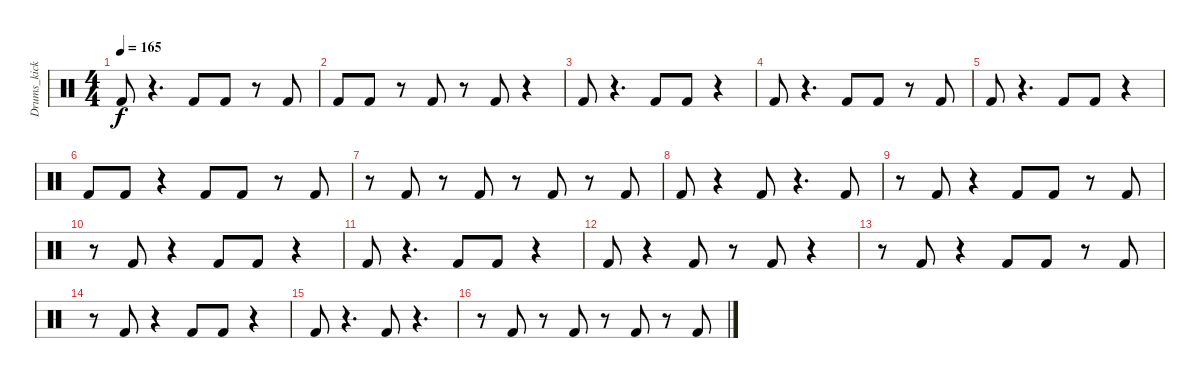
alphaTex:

\track ("Drums_kick" "Drums_kick") {instrument percussion}
\staff {score}
\articulation defaults
\ts (4 4)
\tempo 165
\clef neutral
\ks c "Kick (hit) 2".8{dy f}
r.4{d} "Kick (hit) 2".8 "Kick (hit) 2".8 r.8 "Kick (hit) 2".8 |
"Kick (hit) 2".8 "Kick (hit) 2".8 r.8 "Kick (hit) 2".8 r.8 "Kick (hit) 2".8 r.4 |
"Kick (hit) 2".8 r.4{d} "Kick (hit) 2".8 "Kick (hit) 2".8 r.4 |
"Kick (hit) 2".8 r.4{d} "Kick (hit) 2".8 "Kick (hit) 2".8 r.8 "Kick (hit) 2".8 |
"Kick (hit) 2".8 r.4{d} "Kick (hit) 2".8 "Kick (hit) 2".8 r.4 |
"Kick (hit) 2".8 "Kick (hit) 2".8 r.4 "Kick (hit) 2".8 "Kick (hit) 2".8 r.8 "Kick (hit) 2".8 |
r.8 "Kick (hit) 2".8 r.8 "Kick (hit) 2".8 r.8 "Kick (hit) 2".8 r.8 "Kick (hit) 2".8 |
"Kick (hit) 2".8 r.4 "Kick (hit) 2".8 r.4{d} "Kick (hit) 2".8 |
r.8 "Kick (hit) 2".8 r.4 "Kick (hit) 2".8 "Kick (hit) 2".8 r.8 "Kick (hit) 2".8 |
r.8 "Kick (hit) 2".8 r.4 "Kick (hit) 2".8 "Kick (hit) 2".8 r.4 |
"Kick (hit) 2".8 r.4{d} "Kick (hit) 2".8 "Kick (hit) 2".8 r.4 |
"Kick (hit) 2".8 r.4 "Kick (hit) 2".8 r.8 "Kick (hit) 2".8 r.4 |
r.8 "Kick (hit) 2".8 r.4 "Kick (hit) 2".8 "Kick (hit) 2".8 r.8 "Kick (hit) 2".8 |
r.8 "Kick (hit) 2".8 r.4 "Kick (hit) 2".8 "Kick (hit) 2".8 r.4 |
"Kick (hit) 2".8 r.4{d} "Kick (hit) 2".8 r.4{d} |
r.8 "Kick (hit) 2".8 r.8 "Kick (hit) 2".8 r.8 "Kick (hit) 2".8 r.8 "Kick (hit) 2".8
